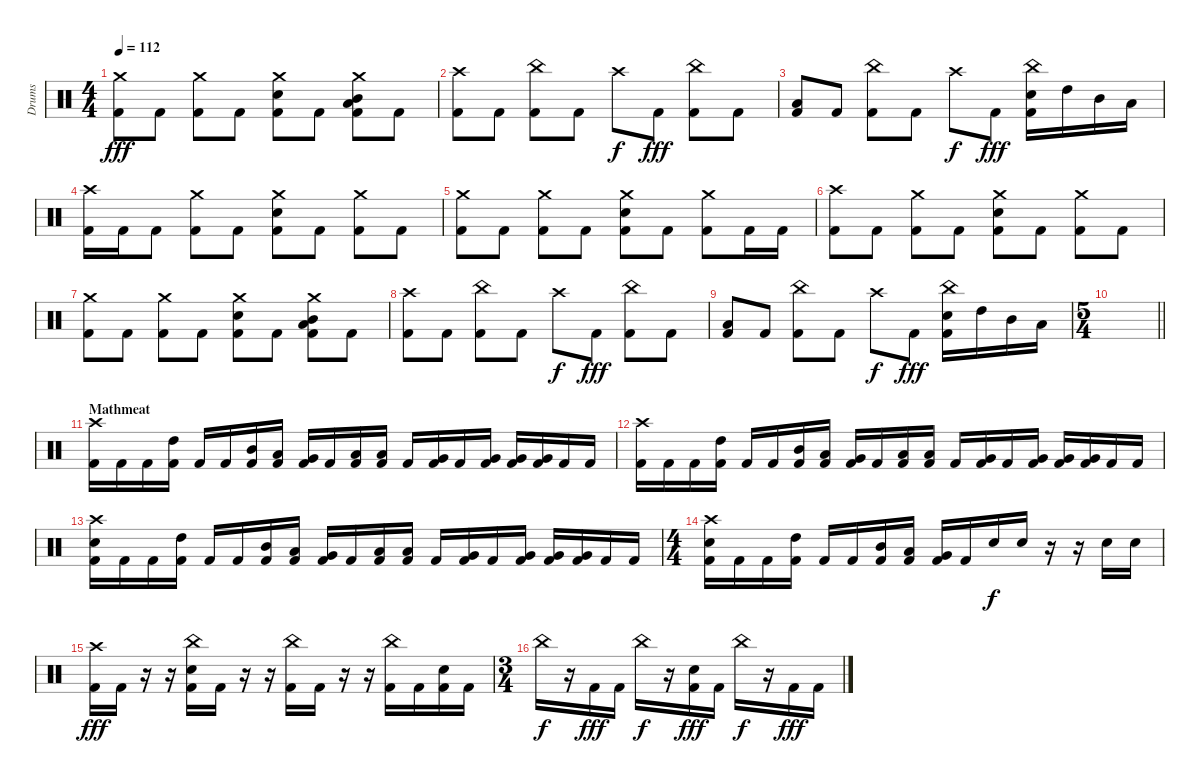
\track ("Drums" "Drums") {instrument percussion}
\staff
\articulation defaults
\ts (4 4)
\tempo 112
\clef neutral
\ks c
("Crash medium (hit)" "Kick (hit) 2").8{dy fff} "Kick (hit) 2".8 ("Crash medium (hit)" "Kick (hit) 2").8 "Kick (hit) 2".8 ("Crash medium (hit)" "Electric Snare (hit)" "Kick (hit) 2").8 "Kick (hit) 2".8 ("Crash medium (hit)" "Low Tom (hit)" "Mid Tom (hit)" "Kick (hit) 2").8 "Kick (hit) 2".8 |
("Crash high (hit)" "Kick (hit) 2").8 "Kick (hit) 2".8 ("China (hit)" "Kick (hit) 2").8 "Kick (hit) 2".8 "Crash high (hit)".8{dy f} "Kick (hit) 2".8{dy fff} ("China (hit)" "Kick (hit) 2").8 "Kick (hit) 2".8 |
("Low Tom (hit)" "Kick (hit) 2").8 "Kick (hit) 2".8 ("China (hit)" "Kick (hit) 2").8 "Kick (hit) 2".8 "Crash high (hit)".8{dy f} "Kick (hit) 2".8{dy fff} ("China (hit)" "Electric Snare (hit)" "Kick (hit) 2").16 "High Tom (hit)".16 "Mid Tom (hit)".16 "Low Tom (hit)".16 |
("Crash high (hit)" "Kick (hit) 2").16 "Kick (hit) 2".16 "Kick (hit) 2".8 ("Crash medium (hit)" "Kick (hit) 2").8 "Kick (hit) 2".8 ("Crash medium (hit)" "Electric Snare (hit)" "Kick (hit) 2").8 "Kick (hit) 2".8 ("Crash medium (hit)" "Kick (hit) 2").8 "Kick (hit) 2".8 |
("Crash medium (hit)" "Kick (hit) 2").8 "Kick (hit) 2".8 ("Crash medium (hit)" "Kick (hit) 2").8 "Kick (hit) 2".8 ("Crash medium (hit)" "Electric Snare (hit)" "Kick (hit) 2").8 "Kick (hit) 2".8 ("Crash medium (hit)" "Kick (hit) 2").8 "Kick (hit) 2".16 "Kick (hit) 2".16 |
("Crash high (hit)" "Kick (hit) 2").8 "Kick (hit) 2".8 ("Crash medium (hit)" "Kick (hit) 2").8 "Kick (hit) 2".8 ("Crash medium (hit)" "Electric Snare (hit)" "Kick (hit) 2").8 "Kick (hit) 2".8 ("Crash medium (hit)" "Kick (hit) 2").8 "Kick (hit) 2".8 |
("Crash medium (hit)" "Kick (hit) 2").8 "Kick (hit) 2".8 ("Crash medium (hit)" "Kick (hit) 2").8 "Kick (hit) 2".8 ("Crash medium (hit)" "Electric Snare (hit)" "Kick (hit) 2").8 "Kick (hit) 2".8 ("Crash medium (hit)" "Low Tom (hit)" "Mid Tom (hit)" "Kick (hit) 2").8 "Kick (hit) 2".8 |
("Crash high (hit)" "Kick (hit) 2").8 "Kick (hit) 2".8 ("China (hit)" "Kick (hit) 2").8 "Kick (hit) 2".8 "Crash high (hit)".8{dy f} "Kick (hit) 2".8{dy fff} ("China (hit)" "Kick (hit) 2").8 "Kick (hit) 2".8 |
("Low Tom (hit)" "Kick (hit) 2").8 "Kick (hit) 2".8 ("China (hit)" "Kick (hit) 2").8 "Kick (hit) 2".8 "Crash high (hit)".8{dy f} "Kick (hit) 2".8{dy fff} ("China (hit)" "Electric Snare (hit)" "Kick (hit) 2").16 "High Tom (hit)".16 "Mid Tom (hit)".16 "Low Tom (hit)".16 |
\ts (5 4)
\barLineRight lightlight
|
\section ("" "Mathmeat")
("Crash high (hit)" "Kick (hit) 2").16 "Kick (hit) 2".16 "Kick (hit) 2".16 ("High Tom (hit)" "Kick (hit) 2").16 "Kick (hit) 2".16 "Kick (hit) 2".16 ("Mid Tom (hit)" "Kick (hit) 2").16 ("Low Tom (hit)" "Kick (hit) 2").16 ("Very Low Tom (hit)" "Kick (hit) 2").16 "Kick (hit) 2".16 ("Low Tom (hit)" "Kick (hit) 2").16 ("Low Tom (hit)" "Kick (hit) 2").16 "Kick (hit) 2".16 ("Very Low Tom (hit)" "Kick (hit) 2").16 "Kick (hit) 2".16 ("Very Low Tom (hit)" "Kick (hit) 2").16 ("Very Low Tom (hit)" "Kick (hit) 2").16 ("Very Low Tom (hit)" "Kick (hit) 2").16 "Kick (hit) 2".16 "Kick (hit) 2".16 |
("Crash high (hit)" "Kick (hit) 2").16 "Kick (hit) 2".16 "Kick (hit) 2".16 ("High Tom (hit)" "Kick (hit) 2").16 "Kick (hit) 2".16 "Kick (hit) 2".16 ("Mid Tom (hit)" "Kick (hit) 2").16 ("Low Tom (hit)" "Kick (hit) 2").16 ("Very Low Tom (hit)" "Kick (hit) 2").16 "Kick (hit) 2".16 ("Low Tom (hit)" "Kick (hit) 2").16 ("Low Tom (hit)" "Kick (hit) 2").16 "Kick (hit) 2".16 ("Very Low Tom (hit)" "Kick (hit) 2").16 "Kick (hit) 2".16 ("Very Low Tom (hit)" "Kick (hit) 2").16 ("Very Low Tom (hit)" "Kick (hit) 2").16 ("Very Low Tom (hit)" "Kick (hit) 2").16 "Kick (hit) 2".16 "Kick (hit) 2".16 |
("Crash high (hit)" "Electric Snare (hit)" "Kick (hit) 2").16 "Kick (hit) 2".16 "Kick (hit) 2".16 ("High Tom (hit)" "Kick (hit) 2").16 "Kick (hit) 2".16 "Kick (hit) 2".16 ("Mid Tom (hit)" "Kick (hit) 2").16 ("Low Tom (hit)" "Kick (hit) 2").16 ("Very Low Tom (hit)" "Kick (hit) 2").16 "Kick (hit) 2".16 ("Low Tom (hit)" "Kick (hit) 2").16 ("Low Tom (hit)" "Kick (hit) 2").16 "Kick (hit) 2".16 ("Very Low Tom (hit)" "Kick (hit) 2").16 "Kick (hit) 2".16 ("Very Low Tom (hit)" "Kick (hit) 2").16 ("Very Low Tom (hit)" "Kick (hit) 2").16 ("Very Low Tom (hit)" "Kick (hit) 2").16 "Kick (hit) 2".16 "Kick (hit) 2".16 |
\ts (4 4)
("Crash high (hit)" "Electric Snare (hit)" "Kick (hit) 2").16 "Kick (hit) 2".16 "Kick (hit) 2".16 ("High Tom (hit)" "Kick (hit) 2").16 "Kick (hit) 2".16 "Kick (hit) 2".16 ("Mid Tom (hit)" "Kick (hit) 2").16 ("Low Tom (hit)" "Kick (hit) 2").16 ("Very Low Tom (hit)" "Kick (hit) 2").16 "Kick (hit) 2".16 "Electric Snare (hit)".16{dy f} "Electric Snare (hit)".16 r.16 r.16 "Electric Snare (hit)".16 "Electric Snare (hit)".16 |
("Crash high (hit)" "Kick (hit) 2").16{dy fff} "Kick (hit) 2".16 r.16 r.16 ("China (hit)" "Electric Snare (hit)" "Kick (hit) 2").16 "Kick (hit) 2".16 r.16 r.16 ("China (hit)" "Kick (hit) 2").16 "Kick (hit) 2".16 r.16 r.16 ("China (hit)" "Kick (hit) 2").16 "Kick (hit) 2".16 ("Electric Snare (hit)" "Kick (hit) 2").16 "Kick (hit) 2".16 |
\ts (3 4)
"China (hit)".16{dy f} r.16 "Kick (hit) 2".16{dy fff} "Kick (hit) 2".16 "China (hit)".16{dy f} r.16 ("Electric Snare (hit)" "Kick (hit) 2").16{dy fff} "Kick (hit) 2".16 "China (hit)".16{dy f} r.16 "Kick (hit) 2".16{dy fff} "Kick (hit) 2".16
